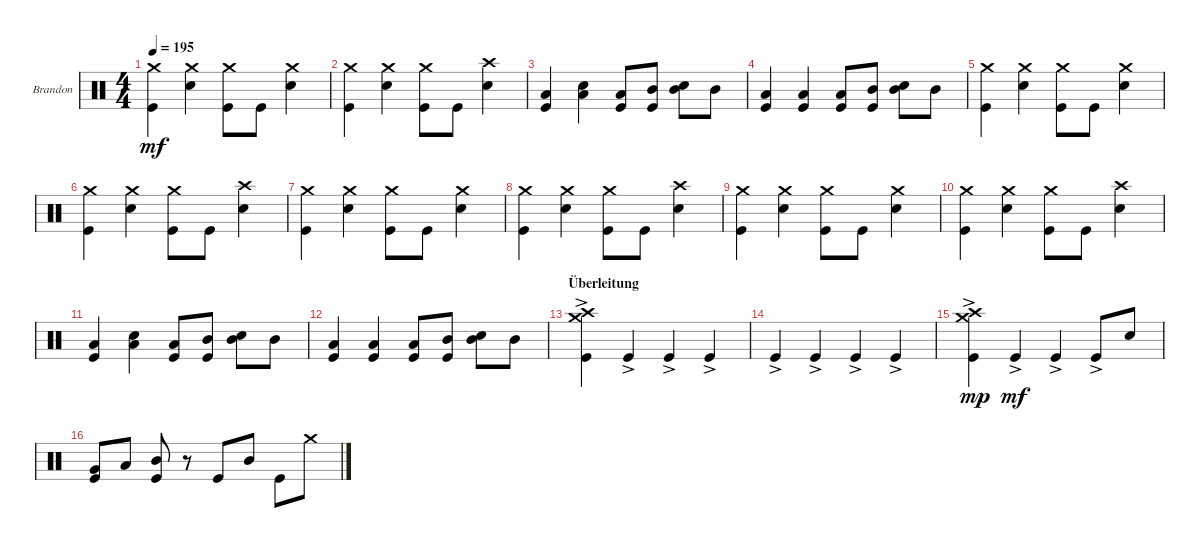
\defaultSystemsLayout 4
\bracketExtendMode groupsimilarinstruments
\firstSystemTrackNameOrientation horizontal
\otherSystemsTrackNameOrientation horizontal
\track ("Drumkit" "Brandon") {instrument percussion}
\staff {score}
\articulation defaults
\ts (4 4)
\tempo 195
\clef neutral
\scale
0.333333
\ks c
("Kick (hit)" "Crash medium (hit)").4{dy mf} ("Snare (hit) 2" "Crash medium (hit)").4 ("Kick (hit)" "Crash medium (hit)").8 "Kick (hit)".8 ("Snare (hit) 2" "Crash medium (hit)").4 |
\scale
0.333333 ("Kick (hit)" "Crash medium (hit)").4 ("Snare (hit) 2" "Crash medium (hit)").4 ("Kick (hit)" "Crash medium (hit)").8 "Kick (hit)".8 ("Snare (hit) 2" "Crash high (hit)").4 |
\scale
0.333333 ("Kick (hit)" "Low Tom (hit)").4 ("Low Tom (hit)" "Snare (hit) 2").4 ("Kick (hit)" "Low Tom (hit)").8 ("Kick (hit)" "Mid Tom (hit)").8 ("Snare (hit) 2" "Mid Tom (hit)").8 "Mid Tom (hit)".8 |
\scale
0.333333 ("Kick (hit)" "Low Tom (hit)").4 ("Kick (hit)" "Low Tom (hit)").4 ("Kick (hit)" "Low Tom (hit)").8 ("Kick (hit)" "Mid Tom (hit)").8 ("Snare (hit) 2" "Mid Tom (hit)").8 "Mid Tom (hit)".8 |
\scale
0.333333 ("Kick (hit)" "Crash medium (hit)").4 ("Snare (hit) 2" "Crash medium (hit)").4 ("Kick (hit)" "Crash medium (hit)").8 "Kick (hit)".8 ("Snare (hit) 2" "Crash medium (hit)").4 |
\scale
0.333333 ("Kick (hit)" "Crash medium (hit)").4 ("Snare (hit) 2" "Crash medium (hit)").4 ("Kick (hit)" "Crash medium (hit)").8 "Kick (hit)".8 ("Snare (hit) 2" "Crash high (hit)").4 |
\scale
0.333333 ("Kick (hit)" "Crash medium (hit)").4 ("Snare (hit) 2" "Crash medium (hit)").4 ("Kick (hit)" "Crash medium (hit)").8 "Kick (hit)".8 ("Snare (hit) 2" "Crash medium (hit)").4 |
\scale
0.333333 ("Kick (hit)" "Crash medium (hit)").4 ("Snare (hit) 2" "Crash medium (hit)").4 ("Kick (hit)" "Crash medium (hit)").8 "Kick (hit)".8 ("Snare (hit) 2" "Crash high (hit)").4 |
\scale
0.333333 ("Kick (hit)" "Crash medium (hit)").4 ("Snare (hit) 2" "Crash medium (hit)").4 ("Kick (hit)" "Crash medium (hit)").8 "Kick (hit)".8 ("Snare (hit) 2" "Crash medium (hit)").4 |
\scale
0.333333 ("Kick (hit)" "Crash medium (hit)").4 ("Snare (hit) 2" "Crash medium (hit)").4 ("Kick (hit)" "Crash medium (hit)").8 "Kick (hit)".8 ("Snare (hit) 2" "Crash high (hit)").4 |
\scale
0.333333 ("Kick (hit)" "Low Tom (hit)").4 ("Low Tom (hit)" "Snare (hit) 2").4 ("Kick (hit)" "Low Tom (hit)").8 ("Kick (hit)" "Mid Tom (hit)").8 ("Snare (hit) 2" "Mid Tom (hit)").8 "Mid Tom (hit)".8 |
\scale
0.333333 ("Kick (hit)" "Low Tom (hit)").4 ("Kick (hit)" "Low Tom (hit)").4 ("Kick (hit)" "Low Tom (hit)").8 ("Kick (hit)" "Mid Tom (hit)").8 ("Snare (hit) 2" "Mid Tom (hit)").8 "Mid Tom (hit)".8 |
\section ("" "Überleitung")
\scale
0.333333 ("Crash medium (hit)" "Crash high (hit)" "Kick (hit)"{ac}).4 "Kick (hit)"{ac}.4 "Kick (hit)"{ac}.4 "Kick (hit)"{ac}.4 |
\scale
0.333333 "Kick (hit)"{ac}.4 "Kick (hit)"{ac}.4 "Kick (hit)"{ac}.4 "Kick (hit)"{ac}.4 |
\scale
0.333333 ("Kick (hit)"{ac} "Crash medium (hit)"{ac} "Crash high (hit)"{ac}).4{dy mp} "Kick (hit)"{ac}.4{dy mf} "Kick (hit)"{ac}.4 "Kick (hit)"{ac}.8 "Snare (hit) 2".8 |
\scale
0.333333 ("Kick (hit)" "Very Low Tom (hit)").8 "Low Tom (hit)".8 ("Mid Tom (hit)" "Kick (hit)").8 r.8 "Kick (hit)".8 "Mid Tom (hit)".8 "Kick (hit)".8 "Crash medium (hit)".8
